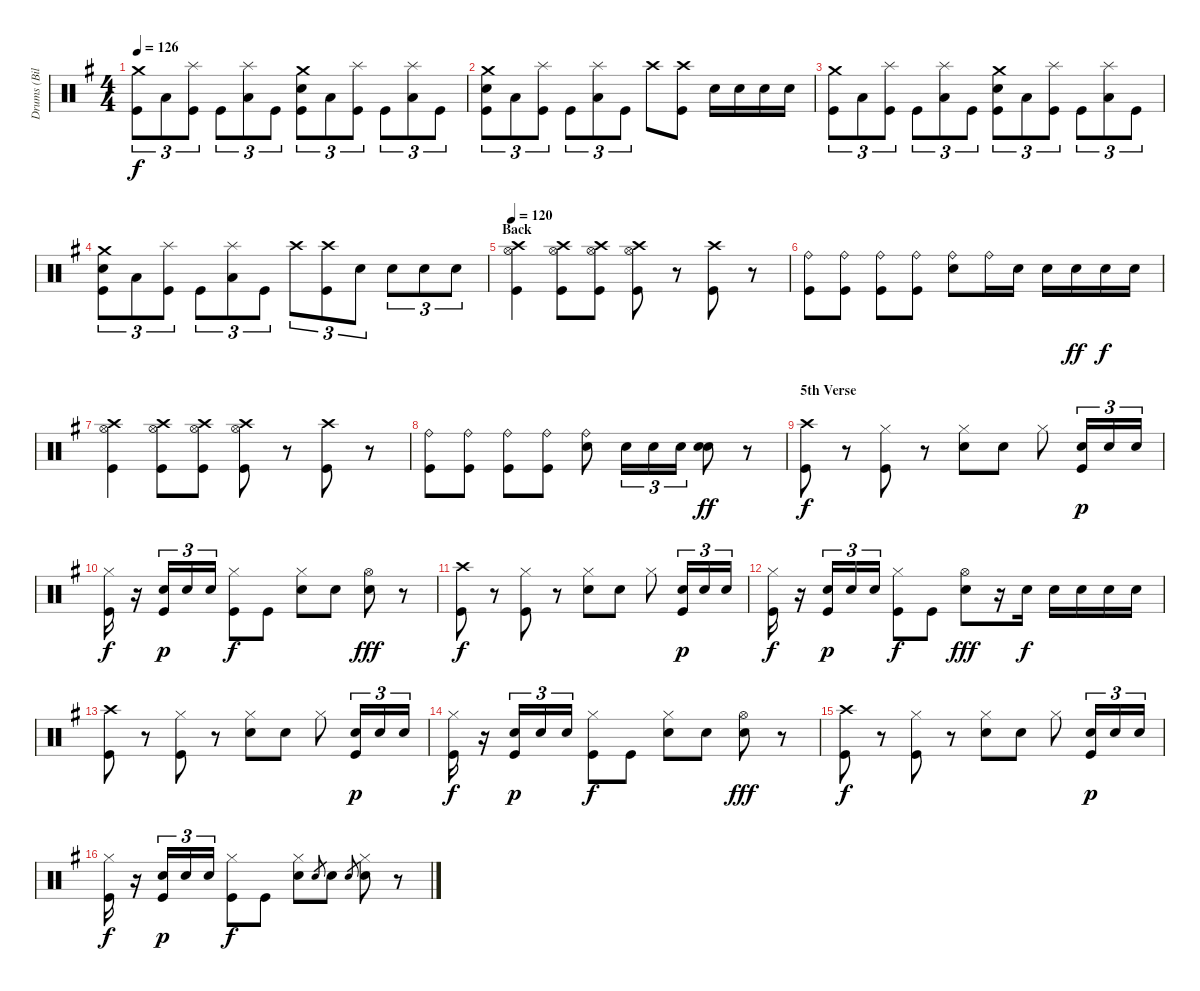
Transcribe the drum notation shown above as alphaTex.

\track ("Drums (Bill Ward)" "Drums (Bil") {instrument percussion}
\staff {score}
\articulation defaults
\ts (4 4)
\tempo 126
\clef neutral
\ks g
("Crash medium (hit)" "Kick (hit)").8{tu (3 2) dy f} "Low Tom (hit)".8{tu (3 2)} ("Splash (hit)" "Kick (hit)").8{tu (3 2)} "Kick (hit)".8{tu (3 2)} ("Splash (hit)" "Low Tom (hit)").8{tu (3 2)} "Kick (hit)".8{tu (3 2)} ("Crash medium (hit)" "Electric Snare (hit)" "Kick (hit)").8{tu (3 2)} "Low Tom (hit)".8{tu (3 2)} ("Splash (hit)" "Kick (hit)").8{tu (3 2)} "Kick (hit)".8{tu (3 2)} ("Splash (hit)" "Low Tom (hit)").8{tu (3 2)} "Kick (hit)".8{tu (3 2)} |
("Crash medium (hit)" "Electric Snare (hit)" "Kick (hit)").8{tu (3 2)} "Low Tom (hit)".8{tu (3 2)} ("Splash (hit)" "Kick (hit)").8{tu (3 2)} "Kick (hit)".8{tu (3 2)} ("Splash (hit)" "Low Tom (hit)").8{tu (3 2)} "Kick (hit)".8{tu (3 2)} "Crash high (hit)".8 ("Crash high (hit)" "Kick (hit)").8 "Electric Snare (hit)".16 "Electric Snare (hit)".16 "Electric Snare (hit)".16 "Electric Snare (hit)".16 |
("Crash medium (hit)" "Kick (hit)").8{tu (3 2)} "Low Tom (hit)".8{tu (3 2)} ("Splash (hit)" "Kick (hit)").8{tu (3 2)} "Kick (hit)".8{tu (3 2)} ("Splash (hit)" "Low Tom (hit)").8{tu (3 2)} "Kick (hit)".8{tu (3 2)} ("Crash medium (hit)" "Electric Snare (hit)" "Kick (hit)").8{tu (3 2)} "Low Tom (hit)".8{tu (3 2)} ("Splash (hit)" "Kick (hit)").8{tu (3 2)} "Kick (hit)".8{tu (3 2)} ("Splash (hit)" "Low Tom (hit)").8{tu (3 2)} "Kick (hit)".8{tu (3 2)} |
("Crash medium (hit)" "Electric Snare (hit)" "Kick (hit)").8{tu (3 2)} "Low Tom (hit)".8{tu (3 2)} ("Splash (hit)" "Kick (hit)").8{tu (3 2)} "Kick (hit)".8{tu (3 2)} ("Splash (hit)" "Low Tom (hit)").8{tu (3 2)} "Kick (hit)".8{tu (3 2)} "Crash high (hit)".8{tu (3 2)} ("Crash high (hit)" "Kick (hit)").8{tu (3 2)} "Electric Snare (hit)".8{tu (3 2)} "Electric Snare (hit)".8{tu (3 2)} "Electric Snare (hit)".8{tu (3 2)} "Electric Snare (hit)".8{tu (3 2)} |
\section ("" "Back")
\tempo 120
("Crash high (hit)" "Hi-Hat (open)" "Kick (hit)").4 ("Crash high (hit)" "Hi-Hat (open)" "Kick (hit)").8 ("Crash high (hit)" "Hi-Hat (open)" "Kick (hit)").8 ("Crash high (hit)" "Hi-Hat (open)" "Kick (hit)").8 r.8 ("Crash high (hit)" "Kick (hit)").8 r.8 |
("Ride (bell)" "Kick (hit)").8 ("Ride (bell)" "Kick (hit)").8 ("Ride (bell)" "Kick (hit)").8 ("Ride (bell)" "Kick (hit)").8 ("Ride (bell)" "Electric Snare (hit)").8 "Ride (bell)".16 "Electric Snare (hit)".16 "Electric Snare (hit)".16 "Electric Snare (hit)".16{dy ff} "Electric Snare (hit)".16{dy f} "Electric Snare (hit)".16 |
("Crash high (hit)" "Hi-Hat (open)" "Kick (hit)").4 ("Crash high (hit)" "Hi-Hat (open)" "Kick (hit)").8 ("Crash high (hit)" "Hi-Hat (open)" "Kick (hit)").8 ("Crash high (hit)" "Hi-Hat (open)" "Kick (hit)").8 r.8 ("Crash high (hit)" "Kick (hit)").8 r.8 |
("Ride (bell)" "Kick (hit)").8 ("Ride (bell)" "Kick (hit)").8 ("Ride (bell)" "Kick (hit)").8 ("Ride (bell)" "Kick (hit)").8 ("Ride (bell)" "Electric Snare (hit)").8 "Electric Snare (hit)".16{tu (3 2)} "Electric Snare (hit)".16{tu (3 2)} "Electric Snare (hit)".16{tu (3 2)} ("Electric Snare (hit)" "Electric Snare (hit)").8{dy ff} r.8 |
\section ("" "5th Verse")
("Crash high (hit)" "Kick (hit)").8{dy f} r.8 ("Hi-Hat (closed)" "Kick (hit)").8 r.8 ("Hi-Hat (closed)" "Electric Snare (hit)").8 "Electric Snare (hit)".8 "Hi-Hat (closed)".8 ("Electric Snare (hit)" "Kick (hit)").16{tu (3 2) dy p} "Electric Snare (hit)".16{tu (3 2)} "Electric Snare (hit)".16{tu (3 2)} |
("Hi-Hat (closed)" "Kick (hit)").16{dy f} r.16 ("Electric Snare (hit)" "Kick (hit)").16{tu (3 2) dy p} "Electric Snare (hit)".16{tu (3 2)} "Electric Snare (hit)".16{tu (3 2)} ("Hi-Hat (closed)" "Kick (hit)").8{dy f} "Kick (hit)".8 ("Hi-Hat (closed)" "Electric Snare (hit)").8 "Electric Snare (hit)".8 ("Hi-Hat (open)" "Electric Snare (hit)").8{dy fff} r.8 |
("Crash high (hit)" "Kick (hit)").8{dy f} r.8 ("Hi-Hat (closed)" "Kick (hit)").8 r.8 ("Hi-Hat (closed)" "Electric Snare (hit)").8 "Electric Snare (hit)".8 "Hi-Hat (closed)".8 ("Electric Snare (hit)" "Kick (hit)").16{tu (3 2) dy p} "Electric Snare (hit)".16{tu (3 2)} "Electric Snare (hit)".16{tu (3 2)} |
("Hi-Hat (closed)" "Kick (hit)").16{dy f} r.16 ("Electric Snare (hit)" "Kick (hit)").16{tu (3 2) dy p} "Electric Snare (hit)".16{tu (3 2)} "Electric Snare (hit)".16{tu (3 2)} ("Hi-Hat (closed)" "Kick (hit)").8{dy f} "Kick (hit)".8 ("Hi-Hat (open)" "Electric Snare (hit)").8{dy fff} r.16 "Electric Snare (hit)".16{dy f} "Electric Snare (hit)".16 "Electric Snare (hit)".16 "Electric Snare (hit)".16 "Electric Snare (hit)".16 |
("Crash high (hit)" "Kick (hit)").8 r.8 ("Hi-Hat (closed)" "Kick (hit)").8 r.8 ("Hi-Hat (closed)" "Electric Snare (hit)").8 "Electric Snare (hit)".8 "Hi-Hat (closed)".8 ("Electric Snare (hit)" "Kick (hit)").16{tu (3 2) dy p} "Electric Snare (hit)".16{tu (3 2)} "Electric Snare (hit)".16{tu (3 2)} |
("Hi-Hat (closed)" "Kick (hit)").16{dy f} r.16 ("Electric Snare (hit)" "Kick (hit)").16{tu (3 2) dy p} "Electric Snare (hit)".16{tu (3 2)} "Electric Snare (hit)".16{tu (3 2)} ("Hi-Hat (closed)" "Kick (hit)").8{dy f} "Kick (hit)".8 ("Hi-Hat (closed)" "Electric Snare (hit)").8 "Electric Snare (hit)".8 ("Hi-Hat (open)" "Electric Snare (hit)").8{dy fff} r.8 |
("Crash high (hit)" "Kick (hit)").8{dy f} r.8 ("Hi-Hat (closed)" "Kick (hit)").8 r.8 ("Hi-Hat (closed)" "Electric Snare (hit)").8 "Electric Snare (hit)".8 "Hi-Hat (closed)".8 ("Electric Snare (hit)" "Kick (hit)").16{tu (3 2) dy p} "Electric Snare (hit)".16{tu (3 2)} "Electric Snare (hit)".16{tu (3 2)} |
("Hi-Hat (closed)" "Kick (hit)").16{dy f} r.16 ("Electric Snare (hit)" "Kick (hit)").16{tu (3 2) dy p} "Electric Snare (hit)".16{tu (3 2)} "Electric Snare (hit)".16{tu (3 2)} ("Hi-Hat (closed)" "Kick (hit)").8{dy f} "Kick (hit)".8 ("Hi-Hat (closed)" "Electric Snare (hit)").8 "Electric Snare (hit)".8{gr} "Electric Snare (hit)".8 "Electric Snare (hit)".8{gr} ("Hi-Hat (closed)" "Electric Snare (hit)").8 r.8
